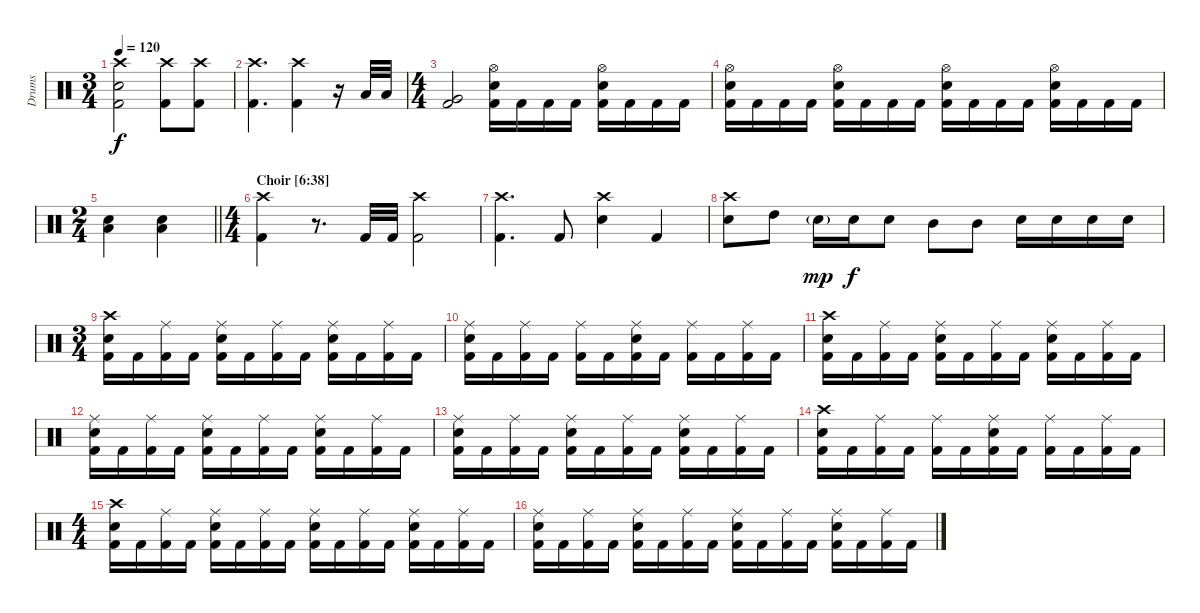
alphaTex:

\track ("Drums" "Drums") {instrument percussion}
\staff {score}
\articulation defaults
\ts (3 4)
\tempo 120
\clef neutral
\ks c
("Crash high (hit)" "Snare (hit) 2" "Kick (hit) 2").2{dy f} ("Crash high (hit)" "Kick (hit) 2").8 ("Crash high (hit)" "Kick (hit) 2").8 |
("Crash high (hit)" "Kick (hit) 2").4{d} ("Crash high (hit)" "Kick (hit) 2").4 r.16 "Low Tom (hit)".32 "Low Tom (hit)".32 |
\ts (4 4)
("Very Low Tom (hit)" "Kick (hit) 2").2 ("Hi-Hat (open)" "Snare (hit) 2" "Kick (hit) 2").16 "Kick (hit) 2".16 "Kick (hit) 2".16 "Kick (hit) 2".16 ("Hi-Hat (open)" "Snare (hit) 2" "Kick (hit) 2").16 "Kick (hit) 2".16 "Kick (hit) 2".16 "Kick (hit) 2".16 |
("Hi-Hat (open)" "Snare (hit) 2" "Kick (hit) 2").16 "Kick (hit) 2".16 "Kick (hit) 2".16 "Kick (hit) 2".16 ("Hi-Hat (open)" "Snare (hit) 2" "Kick (hit) 2").16 "Kick (hit) 2".16 "Kick (hit) 2".16 "Kick (hit) 2".16 ("Hi-Hat (open)" "Snare (hit) 2" "Kick (hit) 2").16 "Kick (hit) 2".16 "Kick (hit) 2".16 "Kick (hit) 2".16 ("Hi-Hat (open)" "Snare (hit) 2" "Kick (hit) 2").16 "Kick (hit) 2".16 "Kick (hit) 2".16 "Kick (hit) 2".16 |
\ts (2 4)
\barLineRight lightlight
("Low Tom (hit)" "Snare (hit) 2").4 ("Low Tom (hit)" "Snare (hit) 2").4 |
\ts (4 4)
\section ("" "Choir [6:38]")
("Crash high (hit)" "Kick (hit) 2").4 r.8{d} "Kick (hit) 2".32 "Kick (hit) 2".32 ("Crash high (hit)" "Kick (hit) 2").2 |
("Crash high (hit)" "Kick (hit) 2").4{d} "Kick (hit) 2".8 ("Crash high (hit)" "Snare (hit) 2").4 "Kick (hit) 2".4 |
("Crash high (hit)" "Snare (hit) 2").8 "High Tom (hit)".8 "Snare (hit) 2"{g}.16{dy mp} "Snare (hit) 2".16{dy f} "Snare (hit) 2".8 "Mid Tom (hit)".8 "Mid Tom (hit)".8 "Snare (hit) 2".16 "Snare (hit) 2".16 "Snare (hit) 2".16 "Snare (hit) 2".16 |
\ts (3 4)
("Crash high (hit)" "Snare (hit) 2" "Kick (hit) 2").16 "Kick (hit) 2".16 ("Ride (middle)" "Kick (hit) 2").16 "Kick (hit) 2".16 ("Ride (middle)" "Snare (hit) 2" "Kick (hit) 2").16 "Kick (hit) 2".16 ("Ride (middle)" "Kick (hit) 2").16 "Kick (hit) 2".16 ("Ride (middle)" "Snare (hit) 2" "Kick (hit) 2").16 "Kick (hit) 2".16 ("Ride (middle)" "Kick (hit) 2").16 "Kick (hit) 2".16 |
("Ride (middle)" "Snare (hit) 2" "Kick (hit) 2").16 "Kick (hit) 2".16 ("Ride (middle)" "Kick (hit) 2").16 "Kick (hit) 2".16 ("Ride (middle)" "Kick (hit) 2").16 "Kick (hit) 2".16 ("Ride (middle)" "Snare (hit) 2" "Kick (hit) 2").16 "Kick (hit) 2".16 ("Ride (middle)" "Kick (hit) 2").16 "Kick (hit) 2".16 ("Ride (middle)" "Kick (hit) 2").16 "Kick (hit) 2".16 |
("Crash high (hit)" "Snare (hit) 2" "Kick (hit) 2").16 "Kick (hit) 2".16 ("Ride (middle)" "Kick (hit) 2").16 "Kick (hit) 2".16 ("Ride (middle)" "Snare (hit) 2" "Kick (hit) 2").16 "Kick (hit) 2".16 ("Ride (middle)" "Kick (hit) 2").16 "Kick (hit) 2".16 ("Ride (middle)" "Snare (hit) 2" "Kick (hit) 2").16 "Kick (hit) 2".16 ("Ride (middle)" "Kick (hit) 2").16 "Kick (hit) 2".16 |
("Ride (middle)" "Snare (hit) 2" "Kick (hit) 2").16 "Kick (hit) 2".16 ("Ride (middle)" "Kick (hit) 2").16 "Kick (hit) 2".16 ("Ride (middle)" "Snare (hit) 2" "Kick (hit) 2").16 "Kick (hit) 2".16 ("Ride (middle)" "Kick (hit) 2").16 "Kick (hit) 2".16 ("Ride (middle)" "Snare (hit) 2" "Kick (hit) 2").16 "Kick (hit) 2".16 ("Ride (middle)" "Kick (hit) 2").16 "Kick (hit) 2".16 |
("Ride (middle)" "Snare (hit) 2" "Kick (hit) 2").16 "Kick (hit) 2".16 ("Ride (middle)" "Kick (hit) 2").16 "Kick (hit) 2".16 ("Ride (middle)" "Snare (hit) 2" "Kick (hit) 2").16 "Kick (hit) 2".16 ("Ride (middle)" "Kick (hit) 2").16 "Kick (hit) 2".16 ("Ride (middle)" "Snare (hit) 2" "Kick (hit) 2").16 "Kick (hit) 2".16 ("Ride (middle)" "Kick (hit) 2").16 "Kick (hit) 2".16 |
("Crash high (hit)" "Snare (hit) 2" "Kick (hit) 2").16 "Kick (hit) 2".16 ("Ride (middle)" "Kick (hit) 2").16 "Kick (hit) 2".16 ("Ride (middle)" "Kick (hit) 2").16 "Kick (hit) 2".16 ("Ride (middle)" "Snare (hit) 2" "Kick (hit) 2").16 "Kick (hit) 2".16 ("Ride (middle)" "Kick (hit) 2").16 "Kick (hit) 2".16 ("Ride (middle)" "Kick (hit) 2").16 "Kick (hit) 2".16 |
\ts (4 4)
("Crash high (hit)" "Snare (hit) 2" "Kick (hit) 2").16 "Kick (hit) 2".16 ("Ride (middle)" "Kick (hit) 2").16 "Kick (hit) 2".16 ("Ride (middle)" "Snare (hit) 2" "Kick (hit) 2").16 "Kick (hit) 2".16 ("Ride (middle)" "Kick (hit) 2").16 "Kick (hit) 2".16 ("Ride (middle)" "Snare (hit) 2" "Kick (hit) 2").16 "Kick (hit) 2".16 ("Ride (middle)" "Kick (hit) 2").16 "Kick (hit) 2".16 ("Ride (middle)" "Snare (hit) 2" "Kick (hit) 2").16 "Kick (hit) 2".16 ("Ride (middle)" "Kick (hit) 2").16 "Kick (hit) 2".16 |
("Ride (middle)" "Snare (hit) 2" "Kick (hit) 2").16 "Kick (hit) 2".16 ("Ride (middle)" "Kick (hit) 2").16 "Kick (hit) 2".16 ("Ride (middle)" "Snare (hit) 2" "Kick (hit) 2").16 "Kick (hit) 2".16 ("Ride (middle)" "Kick (hit) 2").16 "Kick (hit) 2".16 ("Ride (middle)" "Snare (hit) 2" "Kick (hit) 2").16 "Kick (hit) 2".16 ("Ride (middle)" "Kick (hit) 2").16 "Kick (hit) 2".16 ("Ride (middle)" "Snare (hit) 2" "Kick (hit) 2").16 "Kick (hit) 2".16 ("Ride (middle)" "Kick (hit) 2").16 "Kick (hit) 2".16
